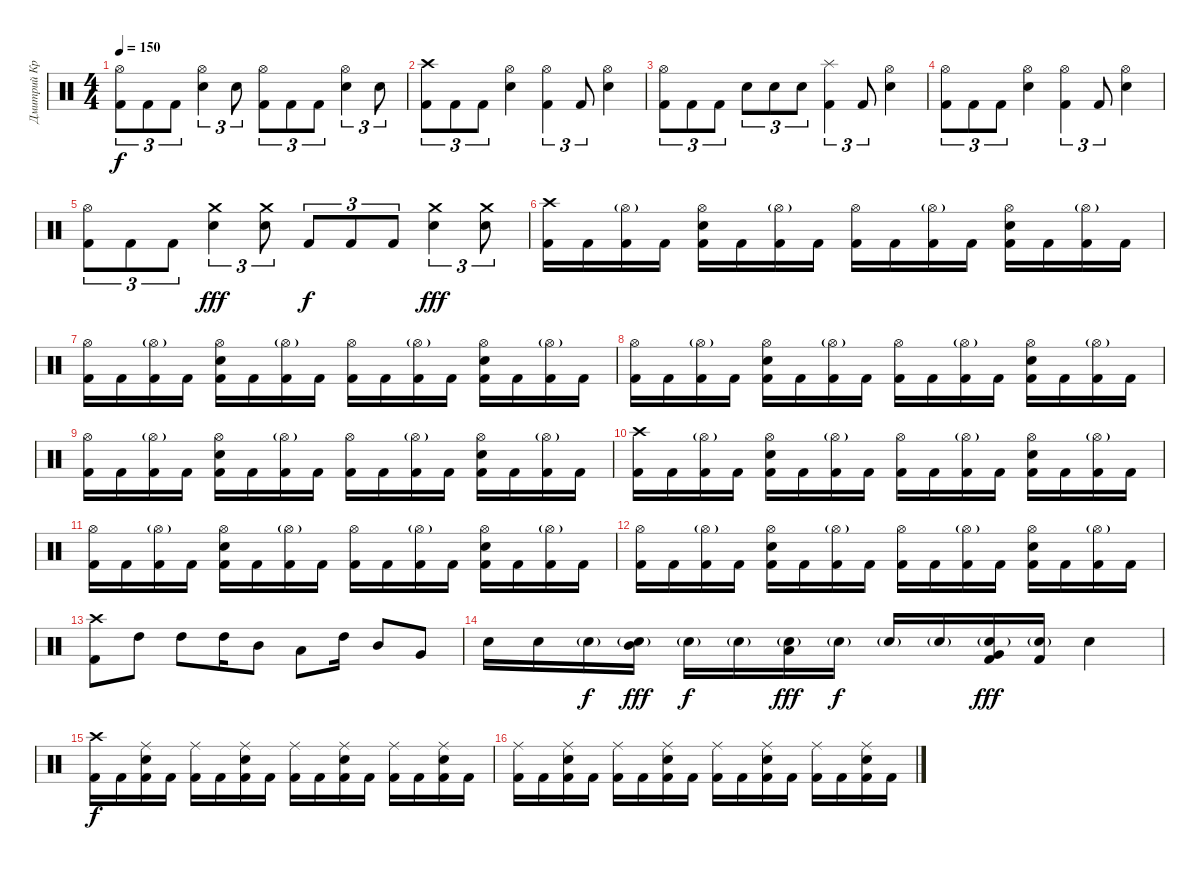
\track ("Дмитрий Кривенков" "Дмитрий Кр") {instrument percussion}
\staff {score}
\articulation defaults
\ts (4 4)
\tempo 150
\clef neutral
\ks c
("Hi-Hat (open)" "Kick (hit) 2").8{tu (3 2) dy f} "Kick (hit) 2".8{tu (3 2)} "Kick (hit) 2".8{tu (3 2)} ("Hi-Hat (open)" "Electric Snare (hit)").4{tu (3 2)} "Electric Snare (hit)".8{tu (3 2)} ("Hi-Hat (open)" "Kick (hit) 2").8{tu (3 2)} "Kick (hit) 2".8{tu (3 2)} "Kick (hit) 2".8{tu (3 2)} ("Hi-Hat (open)" "Electric Snare (hit)").4{tu (3 2)} "Electric Snare (hit)".8{tu (3 2)} |
("Crash high (hit)" "Kick (hit) 2").8{tu (3 2)} "Kick (hit) 2".8{tu (3 2)} "Kick (hit) 2".8{tu (3 2)} ("Hi-Hat (open)" "Electric Snare (hit)").4 ("Hi-Hat (open)" "Kick (hit) 2").4{tu (3 2)} "Kick (hit) 2".8{tu (3 2)} ("Hi-Hat (open)" "Electric Snare (hit)").4 |
("Hi-Hat (open)" "Kick (hit) 2").8{tu (3 2)} "Kick (hit) 2".8{tu (3 2)} "Kick (hit) 2".8{tu (3 2)} "Electric Snare (hit)".8{tu (3 2)} "Electric Snare (hit)".8{tu (3 2)} "Electric Snare (hit)".8{tu (3 2)} ("Splash (hit)" "Kick (hit) 2").4{tu (3 2)} "Kick (hit) 2".8{tu (3 2)} ("Hi-Hat (open)" "Electric Snare (hit)").4 |
("Hi-Hat (open)" "Kick (hit) 2").8{tu (3 2)} "Kick (hit) 2".8{tu (3 2)} "Kick (hit) 2".8{tu (3 2)} ("Hi-Hat (open)" "Electric Snare (hit)").4 ("Hi-Hat (open)" "Kick (hit) 2").4{tu (3 2)} "Kick (hit) 2".8{tu (3 2)} ("Hi-Hat (open)" "Electric Snare (hit)").4 |
("Hi-Hat (open)" "Kick (hit) 2").8{tu (3 2)} "Kick (hit) 2".8{tu (3 2)} "Kick (hit) 2".8{tu (3 2)} ("Crash medium (hit)" "Electric Snare (hit)").4{tu (3 2) dy fff} ("Crash medium (hit)" "Electric Snare (hit)").8{tu (3 2)} "Kick (hit) 2".8{tu (3 2) dy f} "Kick (hit) 2".8{tu (3 2)} "Kick (hit) 2".8{tu (3 2)} ("Crash medium (hit)" "Electric Snare (hit)").4{tu (3 2) dy fff} ("Crash medium (hit)" "Electric Snare (hit)").8{tu (3 2)} |
("Crash high (hit)" "Kick (hit) 2").16 "Kick (hit) 2".16 ("Hi-Hat (open)"{g} "Kick (hit) 2").16 "Kick (hit) 2".16 ("Hi-Hat (open)" "Electric Snare (hit)" "Kick (hit) 2").16 "Kick (hit) 2".16 ("Hi-Hat (open)"{g} "Kick (hit) 2").16 "Kick (hit) 2".16 ("Hi-Hat (open)" "Kick (hit) 2").16 "Kick (hit) 2".16 ("Hi-Hat (open)"{g} "Kick (hit) 2").16 "Kick (hit) 2".16 ("Hi-Hat (open)" "Electric Snare (hit)" "Kick (hit) 2").16 "Kick (hit) 2".16 ("Hi-Hat (open)"{g} "Kick (hit) 2").16 "Kick (hit) 2".16 |
("Hi-Hat (open)" "Kick (hit) 2").16 "Kick (hit) 2".16 ("Hi-Hat (open)"{g} "Kick (hit) 2").16 "Kick (hit) 2".16 ("Hi-Hat (open)" "Electric Snare (hit)" "Kick (hit) 2").16 "Kick (hit) 2".16 ("Hi-Hat (open)"{g} "Kick (hit) 2").16 "Kick (hit) 2".16 ("Hi-Hat (open)" "Kick (hit) 2").16 "Kick (hit) 2".16 ("Hi-Hat (open)"{g} "Kick (hit) 2").16 "Kick (hit) 2".16 ("Hi-Hat (open)" "Electric Snare (hit)" "Kick (hit) 2").16 "Kick (hit) 2".16 ("Hi-Hat (open)"{g} "Kick (hit) 2").16 "Kick (hit) 2".16 |
("Hi-Hat (open)" "Kick (hit) 2").16 "Kick (hit) 2".16 ("Hi-Hat (open)"{g} "Kick (hit) 2").16 "Kick (hit) 2".16 ("Hi-Hat (open)" "Electric Snare (hit)" "Kick (hit) 2").16 "Kick (hit) 2".16 ("Hi-Hat (open)"{g} "Kick (hit) 2").16 "Kick (hit) 2".16 ("Hi-Hat (open)" "Kick (hit) 2").16 "Kick (hit) 2".16 ("Hi-Hat (open)"{g} "Kick (hit) 2").16 "Kick (hit) 2".16 ("Hi-Hat (open)" "Electric Snare (hit)" "Kick (hit) 2").16 "Kick (hit) 2".16 ("Hi-Hat (open)"{g} "Kick (hit) 2").16 "Kick (hit) 2".16 |
("Hi-Hat (open)" "Kick (hit) 2").16 "Kick (hit) 2".16 ("Hi-Hat (open)"{g} "Kick (hit) 2").16 "Kick (hit) 2".16 ("Hi-Hat (open)" "Electric Snare (hit)" "Kick (hit) 2").16 "Kick (hit) 2".16 ("Hi-Hat (open)"{g} "Kick (hit) 2").16 "Kick (hit) 2".16 ("Hi-Hat (open)" "Kick (hit) 2").16 "Kick (hit) 2".16 ("Hi-Hat (open)"{g} "Kick (hit) 2").16 "Kick (hit) 2".16 ("Hi-Hat (open)" "Electric Snare (hit)" "Kick (hit) 2").16 "Kick (hit) 2".16 ("Hi-Hat (open)"{g} "Kick (hit) 2").16 "Kick (hit) 2".16 |
("Crash high (hit)" "Kick (hit) 2").16 "Kick (hit) 2".16 ("Hi-Hat (open)"{g} "Kick (hit) 2").16 "Kick (hit) 2".16 ("Hi-Hat (open)" "Electric Snare (hit)" "Kick (hit) 2").16 "Kick (hit) 2".16 ("Hi-Hat (open)"{g} "Kick (hit) 2").16 "Kick (hit) 2".16 ("Hi-Hat (open)" "Kick (hit) 2").16 "Kick (hit) 2".16 ("Hi-Hat (open)"{g} "Kick (hit) 2").16 "Kick (hit) 2".16 ("Hi-Hat (open)" "Electric Snare (hit)" "Kick (hit) 2").16 "Kick (hit) 2".16 ("Hi-Hat (open)"{g} "Kick (hit) 2").16 "Kick (hit) 2".16 |
("Hi-Hat (open)" "Kick (hit) 2").16 "Kick (hit) 2".16 ("Hi-Hat (open)"{g} "Kick (hit) 2").16 "Kick (hit) 2".16 ("Hi-Hat (open)" "Electric Snare (hit)" "Kick (hit) 2").16 "Kick (hit) 2".16 ("Hi-Hat (open)"{g} "Kick (hit) 2").16 "Kick (hit) 2".16 ("Hi-Hat (open)" "Kick (hit) 2").16 "Kick (hit) 2".16 ("Hi-Hat (open)"{g} "Kick (hit) 2").16 "Kick (hit) 2".16 ("Hi-Hat (open)" "Electric Snare (hit)" "Kick (hit) 2").16 "Kick (hit) 2".16 ("Hi-Hat (open)"{g} "Kick (hit) 2").16 "Kick (hit) 2".16 |
("Hi-Hat (open)" "Kick (hit) 2").16 "Kick (hit) 2".16 ("Hi-Hat (open)"{g} "Kick (hit) 2").16 "Kick (hit) 2".16 ("Hi-Hat (open)" "Electric Snare (hit)" "Kick (hit) 2").16 "Kick (hit) 2".16 ("Hi-Hat (open)"{g} "Kick (hit) 2").16 "Kick (hit) 2".16 ("Hi-Hat (open)" "Kick (hit) 2").16 "Kick (hit) 2".16 ("Hi-Hat (open)"{g} "Kick (hit) 2").16 "Kick (hit) 2".16 ("Hi-Hat (open)" "Electric Snare (hit)" "Kick (hit) 2").16 "Kick (hit) 2".16 ("Hi-Hat (open)"{g} "Kick (hit) 2").16 "Kick (hit) 2".16 |
("Crash high (hit)" "Kick (hit) 2").8 "High Tom (hit)".8 "High Tom (hit)".8 "High Tom (hit)".16 "Mid Tom (hit)".8 "Low Tom (hit)".8 "High Tom (hit)".16 "Mid Tom (hit)".8 "Very Low Tom (hit)".8 |
"Electric Snare (hit)".16 "Electric Snare (hit)".16 "Electric Snare (hit)"{g}.16{dy f} ("Mid Tom (hit)" "Electric Snare (hit)"{g}).16{dy fff} "Electric Snare (hit)"{g}.16{dy f} "Electric Snare (hit)"{g}.16 ("Low Tom (hit)" "Electric Snare (hit)"{g}).16{dy fff} "Electric Snare (hit)"{g}.16{dy f} "Electric Snare (hit)"{g}.16 "Electric Snare (hit)"{g}.16 ("Electric Snare (hit)"{g} "Very Low Tom (hit)" "Kick (hit) 2").16{dy fff} ("Electric Snare (hit)"{g} "Kick (hit) 2").16 "Electric Snare (hit)".4 |
("Crash high (hit)" "Kick (hit) 2").16{dy f} "Kick (hit) 2".16 ("Ride (middle)" "Electric Snare (hit)" "Kick (hit) 2").16 "Kick (hit) 2".16 ("Ride (middle)" "Kick (hit) 2").16 "Kick (hit) 2".16 ("Ride (middle)" "Electric Snare (hit)" "Kick (hit) 2").16 "Kick (hit) 2".16 ("Ride (middle)" "Kick (hit) 2").16 "Kick (hit) 2".16 ("Ride (middle)" "Electric Snare (hit)" "Kick (hit) 2").16 "Kick (hit) 2".16 ("Ride (middle)" "Kick (hit) 2").16 "Kick (hit) 2".16 ("Ride (middle)" "Electric Snare (hit)" "Kick (hit) 2").16 "Kick (hit) 2".16 |
("Ride (middle)" "Kick (hit) 2").16 "Kick (hit) 2".16 ("Ride (middle)" "Electric Snare (hit)" "Kick (hit) 2").16 "Kick (hit) 2".16 ("Ride (middle)" "Kick (hit) 2").16 "Kick (hit) 2".16 ("Ride (middle)" "Electric Snare (hit)" "Kick (hit) 2").16 "Kick (hit) 2".16 ("Ride (middle)" "Kick (hit) 2").16 "Kick (hit) 2".16 ("Ride (middle)" "Electric Snare (hit)" "Kick (hit) 2").16 "Kick (hit) 2".16 ("Ride (middle)" "Kick (hit) 2").16 "Kick (hit) 2".16 ("Ride (middle)" "Electric Snare (hit)" "Kick (hit) 2").16 "Kick (hit) 2".16
